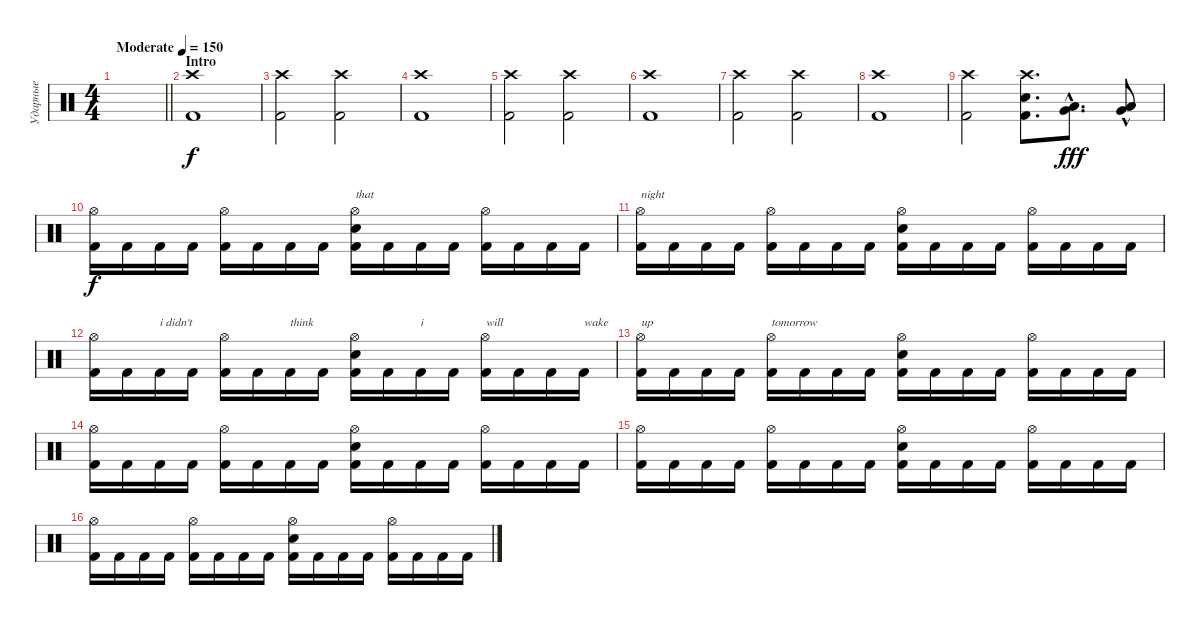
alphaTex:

\track ("Ударные" "Ударные") {instrument percussion}
\staff {score}
\articulation defaults
\ts (4 4)
\tempo (150 "Moderate")
\clef neutral
\barLineRight lightlight
\ks c
|
\section ("" "Intro")
("Crash high (hit)" "Kick (hit) 2").1 |
("Crash high (hit)" "Kick (hit) 2").2 ("Crash high (hit)" "Kick (hit) 2").2 |
("Crash high (hit)" "Kick (hit) 2").1 |
("Crash high (hit)" "Kick (hit) 2").2 ("Crash high (hit)" "Kick (hit) 2").2 |
("Crash high (hit)" "Kick (hit) 2").1 |
("Crash high (hit)" "Kick (hit) 2").2 ("Crash high (hit)" "Kick (hit) 2").2 |
("Crash high (hit)" "Kick (hit) 2").1 |
("Crash high (hit)" "Kick (hit) 2").2 ("Crash high (hit)" "Electric Snare (hit)" "Kick (hit) 2").8{d} ("Low Tom (hit)"{hac} "Very Low Tom (hit)"{hac}).8{d dy fff} ("Very Low Tom (hit)"{hac} "Low Floor Tom (hit)"{hac}).8 |
("Hi-Hat (open)" "Kick (hit) 2").16{dy f} "Kick (hit) 2".16 "Kick (hit) 2".16 "Kick (hit) 2".16 ("Hi-Hat (open)" "Kick (hit) 2").16 "Kick (hit) 2".16 "Kick (hit) 2".16 "Kick (hit) 2".16 ("Hi-Hat (open)" "Electric Snare (hit)" "Kick (hit) 2").16{txt "that"} "Kick (hit) 2".16 "Kick (hit) 2".16 "Kick (hit) 2".16 ("Hi-Hat (open)" "Kick (hit) 2").16 "Kick (hit) 2".16 "Kick (hit) 2".16 "Kick (hit) 2".16 |
("Hi-Hat (open)" "Kick (hit) 2").16{txt "night"} "Kick (hit) 2".16 "Kick (hit) 2".16 "Kick (hit) 2".16 ("Hi-Hat (open)" "Kick (hit) 2").16 "Kick (hit) 2".16 "Kick (hit) 2".16 "Kick (hit) 2".16 ("Hi-Hat (open)" "Electric Snare (hit)" "Kick (hit) 2").16 "Kick (hit) 2".16 "Kick (hit) 2".16 "Kick (hit) 2".16 ("Hi-Hat (open)" "Kick (hit) 2").16 "Kick (hit) 2".16 "Kick (hit) 2".16 "Kick (hit) 2".16 |
("Hi-Hat (open)" "Kick (hit) 2").16 "Kick (hit) 2".16 "Kick (hit) 2".16{txt "i didn't"} "Kick (hit) 2".16 ("Hi-Hat (open)" "Kick (hit) 2").16 "Kick (hit) 2".16 "Kick (hit) 2".16{txt "think"} "Kick (hit) 2".16 ("Hi-Hat (open)" "Electric Snare (hit)" "Kick (hit) 2").16 "Kick (hit) 2".16 "Kick (hit) 2".16{txt "i"} "Kick (hit) 2".16 ("Hi-Hat (open)" "Kick (hit) 2").16{txt "will"} "Kick (hit) 2".16 "Kick (hit) 2".16 "Kick (hit) 2".16{txt "wake"} |
("Hi-Hat (open)" "Kick (hit) 2").16{txt "up"} "Kick (hit) 2".16 "Kick (hit) 2".16 "Kick (hit) 2".16 ("Hi-Hat (open)" "Kick (hit) 2").16{txt "tomorrow"} "Kick (hit) 2".16 "Kick (hit) 2".16 "Kick (hit) 2".16 ("Hi-Hat (open)" "Electric Snare (hit)" "Kick (hit) 2").16 "Kick (hit) 2".16 "Kick (hit) 2".16 "Kick (hit) 2".16 ("Hi-Hat (open)" "Kick (hit) 2").16 "Kick (hit) 2".16 "Kick (hit) 2".16 "Kick (hit) 2".16 |
("Hi-Hat (open)" "Kick (hit) 2").16 "Kick (hit) 2".16 "Kick (hit) 2".16 "Kick (hit) 2".16 ("Hi-Hat (open)" "Kick (hit) 2").16 "Kick (hit) 2".16 "Kick (hit) 2".16 "Kick (hit) 2".16 ("Hi-Hat (open)" "Electric Snare (hit)" "Kick (hit) 2").16 "Kick (hit) 2".16 "Kick (hit) 2".16 "Kick (hit) 2".16 ("Hi-Hat (open)" "Kick (hit) 2").16 "Kick (hit) 2".16 "Kick (hit) 2".16 "Kick (hit) 2".16 |
("Hi-Hat (open)" "Kick (hit) 2").16 "Kick (hit) 2".16 "Kick (hit) 2".16 "Kick (hit) 2".16 ("Hi-Hat (open)" "Kick (hit) 2").16 "Kick (hit) 2".16 "Kick (hit) 2".16 "Kick (hit) 2".16 ("Hi-Hat (open)" "Electric Snare (hit)" "Kick (hit) 2").16 "Kick (hit) 2".16 "Kick (hit) 2".16 "Kick (hit) 2".16 ("Hi-Hat (open)" "Kick (hit) 2").16 "Kick (hit) 2".16 "Kick (hit) 2".16 "Kick (hit) 2".16 |
("Hi-Hat (open)" "Kick (hit) 2").16 "Kick (hit) 2".16 "Kick (hit) 2".16 "Kick (hit) 2".16 ("Hi-Hat (open)" "Kick (hit) 2").16 "Kick (hit) 2".16 "Kick (hit) 2".16 "Kick (hit) 2".16 ("Hi-Hat (open)" "Electric Snare (hit)" "Kick (hit) 2").16 "Kick (hit) 2".16 "Kick (hit) 2".16 "Kick (hit) 2".16 ("Hi-Hat (open)" "Kick (hit) 2").16 "Kick (hit) 2".16 "Kick (hit) 2".16 "Kick (hit) 2".16
